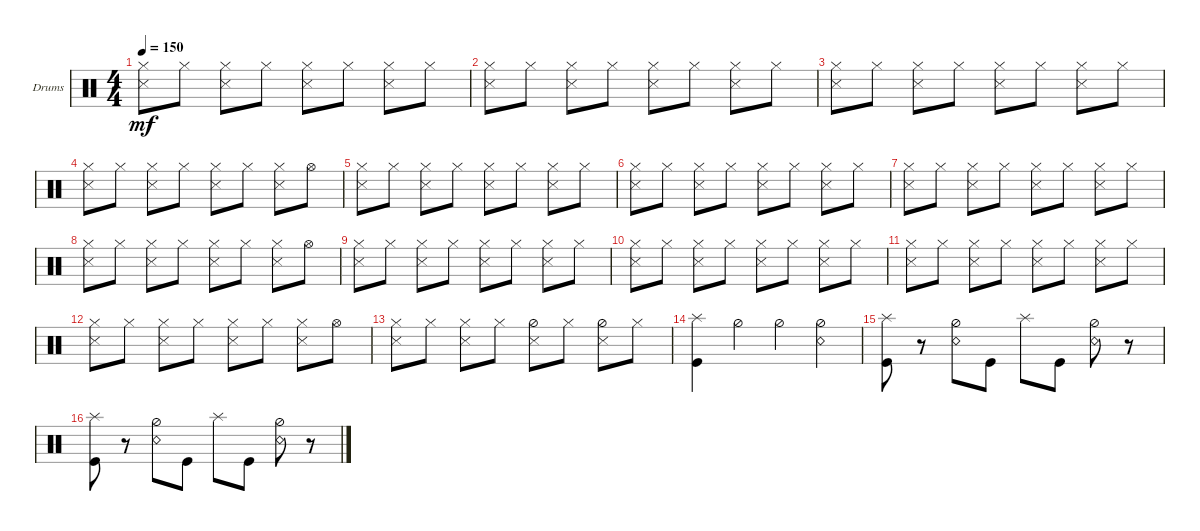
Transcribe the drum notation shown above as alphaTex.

\defaultSystemsLayout 4
\bracketExtendMode groupsimilarinstruments
\firstSystemTrackNameOrientation horizontal
\otherSystemsTrackNameOrientation horizontal
\track ("Drumkit" "Drums") {instrument percussion}
\staff {score}
\articulation defaults
\ts (4 4)
\tempo 150
\clef neutral
\scale
0.474178
\ks c
("Snare (side stick) 3" "Hi-Hat (closed)").8{dy mf} "Hi-Hat (closed)".8 ("Snare (side stick) 3" "Hi-Hat (closed)").8 "Hi-Hat (closed)".8 ("Snare (side stick) 3" "Hi-Hat (closed)").8 "Hi-Hat (closed)".8 ("Snare (side stick) 3" "Hi-Hat (closed)").8 "Hi-Hat (closed)".8 |
\scale
0.262911 ("Snare (side stick) 3" "Hi-Hat (closed)").8 "Hi-Hat (closed)".8 ("Snare (side stick) 3" "Hi-Hat (closed)").8 "Hi-Hat (closed)".8 ("Snare (side stick) 3" "Hi-Hat (closed)").8 "Hi-Hat (closed)".8 ("Snare (side stick) 3" "Hi-Hat (closed)").8 "Hi-Hat (closed)".8 |
\scale
0.262911 ("Snare (side stick) 3" "Hi-Hat (closed)").8 "Hi-Hat (closed)".8 ("Snare (side stick) 3" "Hi-Hat (closed)").8 "Hi-Hat (closed)".8 ("Snare (side stick) 3" "Hi-Hat (closed)").8 "Hi-Hat (closed)".8 ("Snare (side stick) 3" "Hi-Hat (closed)").8 "Hi-Hat (closed)".8 |
\scale
0.333333 ("Snare (side stick) 3" "Hi-Hat (closed)").8 "Hi-Hat (closed)".8 ("Snare (side stick) 3" "Hi-Hat (closed)").8 "Hi-Hat (closed)".8 ("Snare (side stick) 3" "Hi-Hat (closed)").8 "Hi-Hat (closed)".8 ("Snare (side stick) 3" "Hi-Hat (closed)").8 "Hi-Hat (open)".8 |
\scale
0.333333 ("Snare (side stick) 3" "Hi-Hat (closed)").8 "Hi-Hat (closed)".8 ("Snare (side stick) 3" "Hi-Hat (closed)").8 "Hi-Hat (closed)".8 ("Snare (side stick) 3" "Hi-Hat (closed)").8 "Hi-Hat (closed)".8 ("Snare (side stick) 3" "Hi-Hat (closed)").8 "Hi-Hat (closed)".8 |
\scale
0.333333 ("Snare (side stick) 3" "Hi-Hat (closed)").8 "Hi-Hat (closed)".8 ("Snare (side stick) 3" "Hi-Hat (closed)").8 "Hi-Hat (closed)".8 ("Snare (side stick) 3" "Hi-Hat (closed)").8 "Hi-Hat (closed)".8 ("Snare (side stick) 3" "Hi-Hat (closed)").8 "Hi-Hat (closed)".8 |
\scale
0.333333 ("Snare (side stick) 3" "Hi-Hat (closed)").8 "Hi-Hat (closed)".8 ("Snare (side stick) 3" "Hi-Hat (closed)").8 "Hi-Hat (closed)".8 ("Snare (side stick) 3" "Hi-Hat (closed)").8 "Hi-Hat (closed)".8 ("Snare (side stick) 3" "Hi-Hat (closed)").8 "Hi-Hat (closed)".8 |
\scale
0.333333 ("Snare (side stick) 3" "Hi-Hat (closed)").8 "Hi-Hat (closed)".8 ("Snare (side stick) 3" "Hi-Hat (closed)").8 "Hi-Hat (closed)".8 ("Snare (side stick) 3" "Hi-Hat (closed)").8 "Hi-Hat (closed)".8 ("Snare (side stick) 3" "Hi-Hat (closed)").8 "Hi-Hat (open)".8 |
\scale
0.333333 ("Snare (side stick) 3" "Hi-Hat (closed)").8 "Hi-Hat (closed)".8 ("Snare (side stick) 3" "Hi-Hat (closed)").8 "Hi-Hat (closed)".8 ("Snare (side stick) 3" "Hi-Hat (closed)").8 "Hi-Hat (closed)".8 ("Snare (side stick) 3" "Hi-Hat (closed)").8 "Hi-Hat (closed)".8 |
\scale
0.333333 ("Snare (side stick) 3" "Hi-Hat (closed)").8 "Hi-Hat (closed)".8 ("Snare (side stick) 3" "Hi-Hat (closed)").8 "Hi-Hat (closed)".8 ("Snare (side stick) 3" "Hi-Hat (closed)").8 "Hi-Hat (closed)".8 ("Snare (side stick) 3" "Hi-Hat (closed)").8 "Hi-Hat (closed)".8 |
\scale
0.333333 ("Snare (side stick) 3" "Hi-Hat (closed)").8 "Hi-Hat (closed)".8 ("Snare (side stick) 3" "Hi-Hat (closed)").8 "Hi-Hat (closed)".8 ("Snare (side stick) 3" "Hi-Hat (closed)").8 "Hi-Hat (closed)".8 ("Snare (side stick) 3" "Hi-Hat (closed)").8 "Hi-Hat (closed)".8 |
\scale
0.333333 ("Snare (side stick) 3" "Hi-Hat (closed)").8 "Hi-Hat (closed)".8 ("Snare (side stick) 3" "Hi-Hat (closed)").8 "Hi-Hat (closed)".8 ("Snare (side stick) 3" "Hi-Hat (closed)").8 "Hi-Hat (closed)".8 ("Snare (side stick) 3" "Hi-Hat (closed)").8 "Hi-Hat (open)".8 |
\scale
0.333333 ("Snare (side stick) 3" "Hi-Hat (closed)").8 "Hi-Hat (closed)".8 ("Snare (side stick) 3" "Hi-Hat (closed)").8 "Hi-Hat (closed)".8 ("Snare (side stick) 3" "Hi-Hat (half)").8 "Hi-Hat (closed)".8 ("Snare (side stick) 3" "Hi-Hat (half)").8 "Hi-Hat (closed)".8 |
\scale
0.333333 ("Kick (hit)" "Splash (hit)").4 "Hi-Hat (half)".4 "Hi-Hat (half)".4 ("Snare (rim shot)" "Hi-Hat (half)").4 |
\scale
0.333333 ("Kick (hit)" "Splash (hit)").8 r.8 ("Hi-Hat (half)" "Snare (rim shot)").8 "Kick (hit)".8 "Splash (hit)".8 "Kick (hit)".8 ("Hi-Hat (half)" "Snare (rim shot)").8 r.8 |
\scale
0.333333 ("Kick (hit)" "Splash (hit)").8 r.8 ("Hi-Hat (half)" "Snare (rim shot)").8 "Kick (hit)".8 "Splash (hit)".8 "Kick (hit)".8 ("Hi-Hat (half)" "Snare (rim shot)").8 r.8
